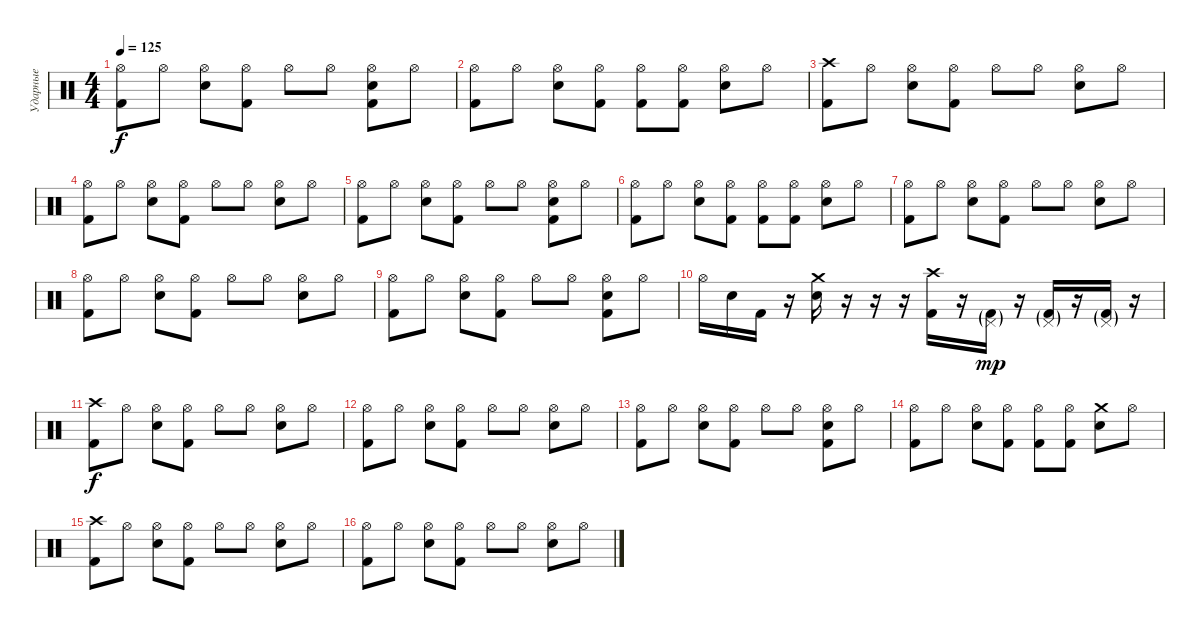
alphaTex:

\track ("Ударные" "Ударные") {instrument percussion}
\staff {score}
\articulation defaults
\ts (4 4)
\tempo 125
\clef neutral
\ks c
("Hi-Hat (open)" "Kick (hit) 2").8{dy f} "Hi-Hat (open)".8 ("Hi-Hat (open)" "Snare (hit) 2").8 ("Hi-Hat (open)" "Kick (hit) 2").8 "Hi-Hat (open)".8 "Hi-Hat (open)".8 ("Hi-Hat (open)" "Snare (hit) 2" "Kick (hit) 2").8 "Hi-Hat (open)".8 |
("Hi-Hat (open)" "Kick (hit) 2").8 "Hi-Hat (open)".8 ("Hi-Hat (open)" "Snare (hit) 2").8 ("Hi-Hat (open)" "Kick (hit) 2").8 ("Hi-Hat (open)" "Kick (hit) 2").8 ("Hi-Hat (open)" "Kick (hit) 2").8 ("Hi-Hat (open)" "Snare (hit) 2").8 "Hi-Hat (open)".8 |
("Crash high (hit)" "Kick (hit) 2").8 "Hi-Hat (open)".8 ("Hi-Hat (open)" "Snare (hit) 2").8 ("Hi-Hat (open)" "Kick (hit) 2").8 "Hi-Hat (open)".8 "Hi-Hat (open)".8 ("Hi-Hat (open)" "Snare (hit) 2").8 "Hi-Hat (open)".8 |
("Hi-Hat (open)" "Kick (hit) 2").8 "Hi-Hat (open)".8 ("Hi-Hat (open)" "Snare (hit) 2").8 ("Hi-Hat (open)" "Kick (hit) 2").8 "Hi-Hat (open)".8 "Hi-Hat (open)".8 ("Hi-Hat (open)" "Snare (hit) 2").8 "Hi-Hat (open)".8 |
("Hi-Hat (open)" "Kick (hit) 2").8 "Hi-Hat (open)".8 ("Hi-Hat (open)" "Snare (hit) 2").8 ("Hi-Hat (open)" "Kick (hit) 2").8 "Hi-Hat (open)".8 "Hi-Hat (open)".8 ("Hi-Hat (open)" "Snare (hit) 2" "Kick (hit) 2").8 "Hi-Hat (open)".8 |
("Hi-Hat (open)" "Kick (hit) 2").8 "Hi-Hat (open)".8 ("Hi-Hat (open)" "Snare (hit) 2").8 ("Hi-Hat (open)" "Kick (hit) 2").8 ("Hi-Hat (open)" "Kick (hit) 2").8 ("Hi-Hat (open)" "Kick (hit) 2").8 ("Hi-Hat (open)" "Snare (hit) 2").8 "Hi-Hat (open)".8 |
("Hi-Hat (open)" "Kick (hit) 2").8 "Hi-Hat (open)".8 ("Hi-Hat (open)" "Snare (hit) 2").8 ("Hi-Hat (open)" "Kick (hit) 2").8 "Hi-Hat (open)".8 "Hi-Hat (open)".8 ("Hi-Hat (open)" "Snare (hit) 2").8 "Hi-Hat (open)".8 |
("Hi-Hat (open)" "Kick (hit) 2").8 "Hi-Hat (open)".8 ("Hi-Hat (open)" "Snare (hit) 2").8 ("Hi-Hat (open)" "Kick (hit) 2").8 "Hi-Hat (open)".8 "Hi-Hat (open)".8 ("Hi-Hat (open)" "Snare (hit) 2").8 "Hi-Hat (open)".8 |
("Hi-Hat (open)" "Kick (hit) 2").8 "Hi-Hat (open)".8 ("Hi-Hat (open)" "Snare (hit) 2").8 ("Hi-Hat (open)" "Kick (hit) 2").8 "Hi-Hat (open)".8 "Hi-Hat (open)".8 ("Hi-Hat (open)" "Snare (hit) 2" "Kick (hit) 2").8 "Hi-Hat (open)".8 |
"Hi-Hat (open)".16 "Snare (hit) 2".16 "Kick (hit) 2".16 r.16 ("Crash medium (hit)" "Snare (hit) 2").16 r.16 r.16 r.16 ("Crash high (hit)" "Kick (hit) 2").16 r.16 ("Pedal Hi-Hat (hit)"{g} "Kick (hit) 2"{g}).16{dy mp} r.16 ("Pedal Hi-Hat (hit)"{g} "Kick (hit) 2"{g}).16 r.16 ("Pedal Hi-Hat (hit)"{g} "Kick (hit) 2"{g}).16 r.16 |
("Crash high (hit)" "Kick (hit) 2").8{dy f} "Hi-Hat (open)".8 ("Hi-Hat (open)" "Snare (hit) 2").8 ("Hi-Hat (open)" "Kick (hit) 2").8 "Hi-Hat (open)".8 "Hi-Hat (open)".8 ("Hi-Hat (open)" "Snare (hit) 2").8 "Hi-Hat (open)".8 |
("Hi-Hat (open)" "Kick (hit) 2").8 "Hi-Hat (open)".8 ("Hi-Hat (open)" "Snare (hit) 2").8 ("Hi-Hat (open)" "Kick (hit) 2").8 "Hi-Hat (open)".8 "Hi-Hat (open)".8 ("Hi-Hat (open)" "Snare (hit) 2").8 "Hi-Hat (open)".8 |
("Hi-Hat (open)" "Kick (hit) 2").8 "Hi-Hat (open)".8 ("Hi-Hat (open)" "Snare (hit) 2").8 ("Hi-Hat (open)" "Kick (hit) 2").8 "Hi-Hat (open)".8 "Hi-Hat (open)".8 ("Hi-Hat (open)" "Snare (hit) 2" "Kick (hit) 2").8 "Hi-Hat (open)".8 |
("Hi-Hat (open)" "Kick (hit) 2").8 "Hi-Hat (open)".8 ("Hi-Hat (open)" "Snare (hit) 2").8 ("Hi-Hat (open)" "Kick (hit) 2").8 ("Hi-Hat (open)" "Kick (hit) 2").8 ("Hi-Hat (open)" "Kick (hit) 2").8 ("Crash medium (hit)" "Snare (hit) 2").8 "Hi-Hat (open)".8 |
("Crash high (hit)" "Kick (hit) 2").8 "Hi-Hat (open)".8 ("Hi-Hat (open)" "Snare (hit) 2").8 ("Hi-Hat (open)" "Kick (hit) 2").8 "Hi-Hat (open)".8 "Hi-Hat (open)".8 ("Hi-Hat (open)" "Snare (hit) 2").8 "Hi-Hat (open)".8 |
("Hi-Hat (open)" "Kick (hit) 2").8 "Hi-Hat (open)".8 ("Hi-Hat (open)" "Snare (hit) 2").8 ("Hi-Hat (open)" "Kick (hit) 2").8 "Hi-Hat (open)".8 "Hi-Hat (open)".8 ("Hi-Hat (open)" "Snare (hit) 2").8 "Hi-Hat (open)".8
